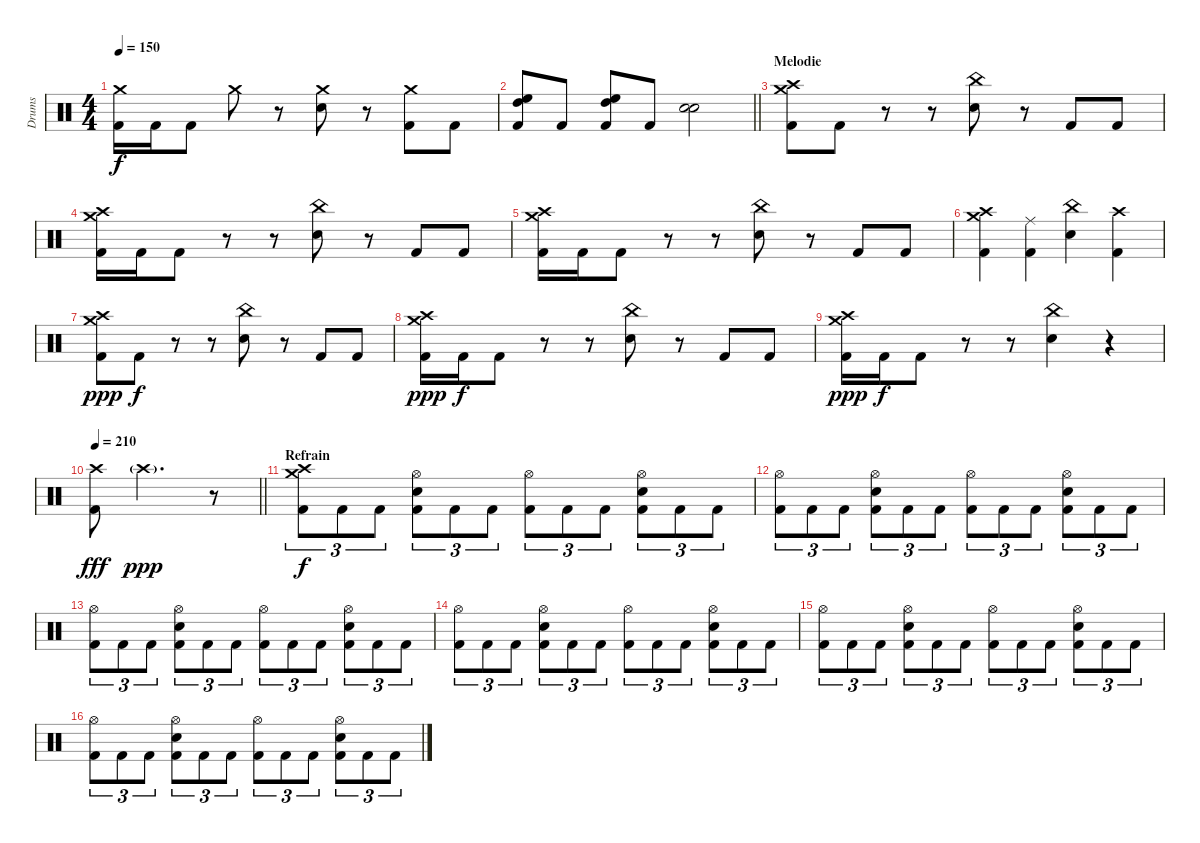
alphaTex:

\track ("Drums" "Drums") {instrument percussion}
\staff {score}
\articulation defaults
\ts (4 4)
\tempo 150
\clef neutral
\ks c
("Crash medium (hit)" "Kick (hit) 2").16{dy f} "Kick (hit) 2".16 "Kick (hit) 2".8 "Crash medium (hit)".8 r.8 ("Crash medium (hit)" "Electric Snare (hit)").8 r.8 ("Crash medium (hit)" "Kick (hit) 2").8 "Kick (hit) 2".8 |
\barLineRight lightlight
("High Floor Tom (hit)" "High Tom (hit)" "Kick (hit) 2").8 "Kick (hit) 2".8 ("High Floor Tom (hit)" "High Tom (hit)" "Kick (hit) 2").8 "Kick (hit) 2".8 ("Electric Snare (hit)" "Electric Snare (hit)").2 |
\section ("" "Melodie")
("Crash medium (hit)" "Crash high (hit)" "Kick (hit) 2").8 "Kick (hit) 2".8 r.8 r.8 ("China (hit)" "Electric Snare (hit)").8 r.8 "Kick (hit) 2".8 "Kick (hit) 2".8 |
("Crash medium (hit)" "Crash high (hit)" "Kick (hit) 2").16 "Kick (hit) 2".16 "Kick (hit) 2".8 r.8 r.8 ("China (hit)" "Electric Snare (hit)").8 r.8 "Kick (hit) 2".8 "Kick (hit) 2".8 |
("Crash medium (hit)" "Crash high (hit)" "Kick (hit) 2").16 "Kick (hit) 2".16 "Kick (hit) 2".8 r.8 r.8 ("China (hit)" "Electric Snare (hit)").8 r.8 "Kick (hit) 2".8 "Kick (hit) 2".8 |
("Crash medium (hit)" "Crash high (hit)" "Kick (hit) 2").4 ("Ride (middle)" "Kick (hit) 2").4 ("China (hit)" "Electric Snare (hit)").4 ("Crash high (hit)" "Kick (hit) 2").4 |
("Crash medium (hit)" "Crash high (hit)" "Kick (hit) 2").8{dy ppp} "Kick (hit) 2".8{dy f} r.8 r.8 ("China (hit)" "Electric Snare (hit)").8 r.8 "Kick (hit) 2".8 "Kick (hit) 2".8 |
("Crash medium (hit)" "Crash high (hit)" "Kick (hit) 2").16{dy ppp} "Kick (hit) 2".16{dy f} "Kick (hit) 2".8 r.8 r.8 ("China (hit)" "Electric Snare (hit)").8 r.8 "Kick (hit) 2".8 "Kick (hit) 2".8 |
("Crash medium (hit)" "Crash high (hit)" "Kick (hit) 2").16{dy ppp} "Kick (hit) 2".16{dy f} "Kick (hit) 2".8 r.8 r.8 ("China (hit)" "Electric Snare (hit)").4 r.4 |
\tempo 210
\barLineRight lightlight
("Crash high (hit)" "Kick (hit) 2").8{dy fff} "Crash high (hit)"{g}.2{d dy ppp} r.8 |
\section ("" "Refrain")
("Crash medium (hit)" "Crash high (hit)" "Kick (hit) 2").8{tu (3 2) dy f} "Kick (hit) 2".8{tu (3 2)} "Kick (hit) 2".8{tu (3 2)} ("Hi-Hat (open)" "Electric Snare (hit)" "Kick (hit) 2").8{tu (3 2)} "Kick (hit) 2".8{tu (3 2)} "Kick (hit) 2".8{tu (3 2)} ("Hi-Hat (open)" "Kick (hit) 2").8{tu (3 2)} "Kick (hit) 2".8{tu (3 2)} "Kick (hit) 2".8{tu (3 2)} ("Hi-Hat (open)" "Electric Snare (hit)" "Kick (hit) 2").8{tu (3 2)} "Kick (hit) 2".8{tu (3 2)} "Kick (hit) 2".8{tu (3 2)} |
("Hi-Hat (open)" "Kick (hit) 2").8{tu (3 2)} "Kick (hit) 2".8{tu (3 2)} "Kick (hit) 2".8{tu (3 2)} ("Hi-Hat (open)" "Electric Snare (hit)" "Kick (hit) 2").8{tu (3 2)} "Kick (hit) 2".8{tu (3 2)} "Kick (hit) 2".8{tu (3 2)} ("Hi-Hat (open)" "Kick (hit) 2").8{tu (3 2)} "Kick (hit) 2".8{tu (3 2)} "Kick (hit) 2".8{tu (3 2)} ("Hi-Hat (open)" "Electric Snare (hit)" "Kick (hit) 2").8{tu (3 2)} "Kick (hit) 2".8{tu (3 2)} "Kick (hit) 2".8{tu (3 2)} |
("Hi-Hat (open)" "Kick (hit) 2").8{tu (3 2)} "Kick (hit) 2".8{tu (3 2)} "Kick (hit) 2".8{tu (3 2)} ("Hi-Hat (open)" "Electric Snare (hit)" "Kick (hit) 2").8{tu (3 2)} "Kick (hit) 2".8{tu (3 2)} "Kick (hit) 2".8{tu (3 2)} ("Hi-Hat (open)" "Kick (hit) 2").8{tu (3 2)} "Kick (hit) 2".8{tu (3 2)} "Kick (hit) 2".8{tu (3 2)} ("Hi-Hat (open)" "Electric Snare (hit)" "Kick (hit) 2").8{tu (3 2)} "Kick (hit) 2".8{tu (3 2)} "Kick (hit) 2".8{tu (3 2)} |
("Hi-Hat (open)" "Kick (hit) 2").8{tu (3 2)} "Kick (hit) 2".8{tu (3 2)} "Kick (hit) 2".8{tu (3 2)} ("Hi-Hat (open)" "Electric Snare (hit)" "Kick (hit) 2").8{tu (3 2)} "Kick (hit) 2".8{tu (3 2)} "Kick (hit) 2".8{tu (3 2)} ("Hi-Hat (open)" "Kick (hit) 2").8{tu (3 2)} "Kick (hit) 2".8{tu (3 2)} "Kick (hit) 2".8{tu (3 2)} ("Hi-Hat (open)" "Electric Snare (hit)" "Kick (hit) 2").8{tu (3 2)} "Kick (hit) 2".8{tu (3 2)} "Kick (hit) 2".8{tu (3 2)} |
("Hi-Hat (open)" "Kick (hit) 2").8{tu (3 2)} "Kick (hit) 2".8{tu (3 2)} "Kick (hit) 2".8{tu (3 2)} ("Hi-Hat (open)" "Electric Snare (hit)" "Kick (hit) 2").8{tu (3 2)} "Kick (hit) 2".8{tu (3 2)} "Kick (hit) 2".8{tu (3 2)} ("Hi-Hat (open)" "Kick (hit) 2").8{tu (3 2)} "Kick (hit) 2".8{tu (3 2)} "Kick (hit) 2".8{tu (3 2)} ("Hi-Hat (open)" "Electric Snare (hit)" "Kick (hit) 2").8{tu (3 2)} "Kick (hit) 2".8{tu (3 2)} "Kick (hit) 2".8{tu (3 2)} |
("Hi-Hat (open)" "Kick (hit) 2").8{tu (3 2)} "Kick (hit) 2".8{tu (3 2)} "Kick (hit) 2".8{tu (3 2)} ("Hi-Hat (open)" "Electric Snare (hit)" "Kick (hit) 2").8{tu (3 2)} "Kick (hit) 2".8{tu (3 2)} "Kick (hit) 2".8{tu (3 2)} ("Hi-Hat (open)" "Kick (hit) 2").8{tu (3 2)} "Kick (hit) 2".8{tu (3 2)} "Kick (hit) 2".8{tu (3 2)} ("Hi-Hat (open)" "Electric Snare (hit)" "Kick (hit) 2").8{tu (3 2)} "Kick (hit) 2".8{tu (3 2)} "Kick (hit) 2".8{tu (3 2)}
